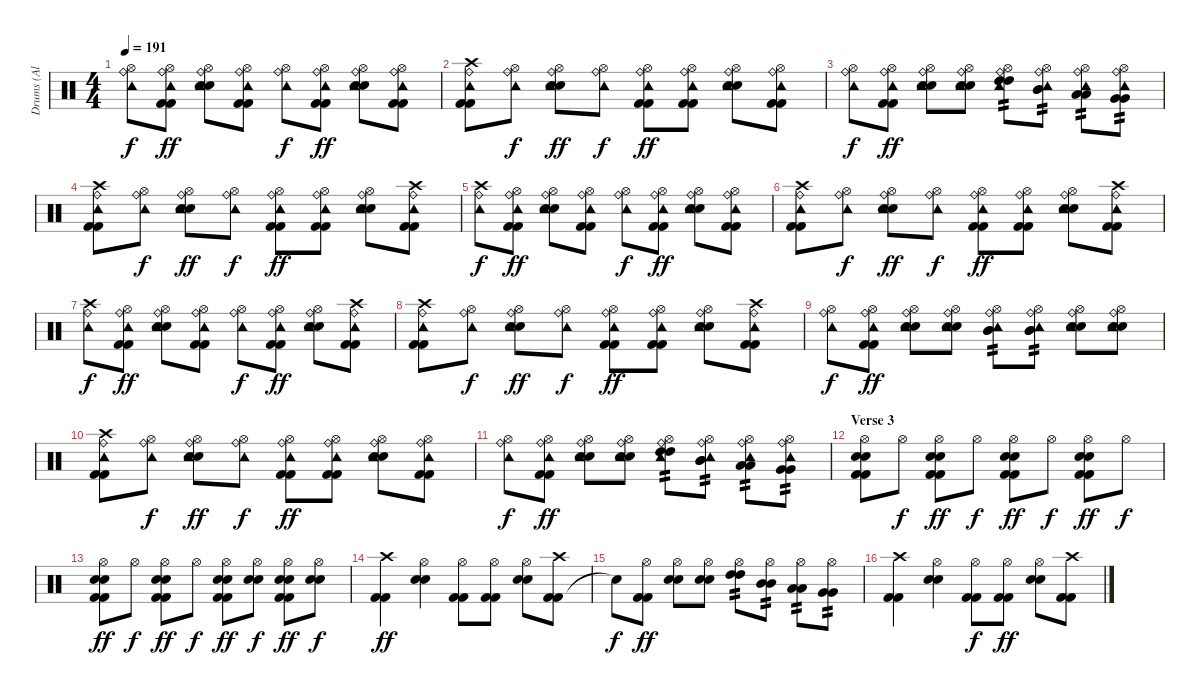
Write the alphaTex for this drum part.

\track ("Drums (Al Sobrante)" "Drums (Al ") {instrument percussion}
\staff {score}
\articulation defaults
\ts (4 4)
\tempo 191
\clef neutral
\ks c
("Ride (bell)" "Tambourine (hit)" "Hi-Hat (open)").8{dy f} ("Kick (hit) 2" "Kick (hit) 2" "Ride (bell)" "Tambourine (hit)" "Hi-Hat (open)").8{dy ff} ("Electric Snare (hit)" "Electric Snare (hit)" "Ride (bell)" "Tambourine (hit)" "Hi-Hat (open)").8 ("Kick (hit) 2" "Kick (hit) 2" "Ride (bell)" "Tambourine (hit)" "Hi-Hat (open)").8 ("Ride (bell)" "Tambourine (hit)" "Hi-Hat (open)").8{dy f} ("Kick (hit) 2" "Kick (hit) 2" "Ride (bell)" "Tambourine (hit)" "Hi-Hat (open)").8{dy ff} ("Electric Snare (hit)" "Electric Snare (hit)" "Ride (bell)" "Tambourine (hit)" "Hi-Hat (open)").8 ("Kick (hit) 2" "Kick (hit) 2" "Ride (bell)" "Tambourine (hit)" "Hi-Hat (open)").8 |
("Kick (hit) 2" "Kick (hit) 2" "Ride (bell)" "Tambourine (hit)" "Crash high (hit)").8 ("Ride (bell)" "Tambourine (hit)" "Hi-Hat (open)").8{dy f} ("Electric Snare (hit)" "Electric Snare (hit)" "Ride (bell)" "Tambourine (hit)" "Hi-Hat (open)").8{dy ff} ("Ride (bell)" "Tambourine (hit)" "Hi-Hat (open)").8{dy f} ("Kick (hit) 2" "Kick (hit) 2" "Ride (bell)" "Tambourine (hit)" "Hi-Hat (open)").8{dy ff} ("Kick (hit) 2" "Kick (hit) 2" "Ride (bell)" "Tambourine (hit)" "Hi-Hat (open)").8 ("Electric Snare (hit)" "Electric Snare (hit)" "Ride (bell)" "Tambourine (hit)" "Hi-Hat (open)").8 ("Kick (hit) 2" "Kick (hit) 2" "Ride (bell)" "Tambourine (hit)" "Hi-Hat (open)").8 |
("Ride (bell)" "Tambourine (hit)" "Hi-Hat (open)").8{dy f} ("Kick (hit) 2" "Kick (hit) 2" "Ride (bell)" "Tambourine (hit)" "Hi-Hat (open)").8{dy ff} ("Electric Snare (hit)" "Electric Snare (hit)" "Ride (bell)" "Tambourine (hit)" "Hi-Hat (open)").8 ("Electric Snare (hit)" "Electric Snare (hit)" "Ride (bell)" "Tambourine (hit)" "Hi-Hat (open)").8 ("High Tom (hit)" "High Tom (hit)" "Ride (bell)" "Tambourine (hit)" "Hi-Hat (open)").8{tp 2} ("Mid Tom (hit)" "Mid Tom (hit)" "Ride (bell)" "Tambourine (hit)" "Hi-Hat (open)").8{tp 2} ("Low Tom (hit)" "Low Tom (hit)" "Ride (bell)" "Tambourine (hit)" "Hi-Hat (open)").8{tp 2} ("Very Low Tom (hit)" "Very Low Tom (hit)" "Ride (bell)" "Tambourine (hit)" "Hi-Hat (open)").8{tp 2} |
("Kick (hit) 2" "Kick (hit) 2" "Ride (bell)" "Tambourine (hit)" "Crash high (hit)").8 ("Ride (bell)" "Tambourine (hit)" "Hi-Hat (open)").8{dy f} ("Electric Snare (hit)" "Electric Snare (hit)" "Ride (bell)" "Tambourine (hit)" "Hi-Hat (open)").8{dy ff} ("Ride (bell)" "Tambourine (hit)" "Hi-Hat (open)").8{dy f} ("Kick (hit) 2" "Kick (hit) 2" "Ride (bell)" "Tambourine (hit)" "Hi-Hat (open)").8{dy ff} ("Kick (hit) 2" "Kick (hit) 2" "Ride (bell)" "Tambourine (hit)" "Hi-Hat (open)").8 ("Electric Snare (hit)" "Electric Snare (hit)" "Ride (bell)" "Tambourine (hit)" "Hi-Hat (open)").8 ("Kick (hit) 2" "Kick (hit) 2" "Ride (bell)" "Tambourine (hit)" "Crash high (hit)").8 |
("Ride (bell)" "Tambourine (hit)" "Crash high (hit)").8{dy f} ("Kick (hit) 2" "Kick (hit) 2" "Ride (bell)" "Tambourine (hit)" "Hi-Hat (open)").8{dy ff} ("Electric Snare (hit)" "Electric Snare (hit)" "Ride (bell)" "Tambourine (hit)" "Hi-Hat (open)").8 ("Kick (hit) 2" "Kick (hit) 2" "Ride (bell)" "Tambourine (hit)" "Hi-Hat (open)").8 ("Ride (bell)" "Tambourine (hit)" "Hi-Hat (open)").8{dy f} ("Kick (hit) 2" "Kick (hit) 2" "Ride (bell)" "Tambourine (hit)" "Hi-Hat (open)").8{dy ff} ("Electric Snare (hit)" "Electric Snare (hit)" "Ride (bell)" "Tambourine (hit)" "Hi-Hat (open)").8 ("Kick (hit) 2" "Kick (hit) 2" "Ride (bell)" "Tambourine (hit)" "Hi-Hat (open)").8 |
("Kick (hit) 2" "Kick (hit) 2" "Ride (bell)" "Tambourine (hit)" "Crash high (hit)").8 ("Ride (bell)" "Tambourine (hit)" "Hi-Hat (open)").8{dy f} ("Electric Snare (hit)" "Electric Snare (hit)" "Ride (bell)" "Tambourine (hit)" "Hi-Hat (open)").8{dy ff} ("Ride (bell)" "Tambourine (hit)" "Hi-Hat (open)").8{dy f} ("Kick (hit) 2" "Kick (hit) 2" "Ride (bell)" "Tambourine (hit)" "Hi-Hat (open)").8{dy ff} ("Kick (hit) 2" "Kick (hit) 2" "Ride (bell)" "Tambourine (hit)" "Hi-Hat (open)").8 ("Electric Snare (hit)" "Electric Snare (hit)" "Ride (bell)" "Tambourine (hit)" "Hi-Hat (open)").8 ("Kick (hit) 2" "Kick (hit) 2" "Ride (bell)" "Tambourine (hit)" "Crash high (hit)").8 |
("Ride (bell)" "Tambourine (hit)" "Crash high (hit)").8{dy f} ("Kick (hit) 2" "Kick (hit) 2" "Ride (bell)" "Tambourine (hit)" "Hi-Hat (open)").8{dy ff} ("Electric Snare (hit)" "Electric Snare (hit)" "Ride (bell)" "Tambourine (hit)" "Hi-Hat (open)").8 ("Kick (hit) 2" "Kick (hit) 2" "Ride (bell)" "Tambourine (hit)" "Hi-Hat (open)").8 ("Ride (bell)" "Tambourine (hit)" "Hi-Hat (open)").8{dy f} ("Kick (hit) 2" "Kick (hit) 2" "Ride (bell)" "Tambourine (hit)" "Hi-Hat (open)").8{dy ff} ("Electric Snare (hit)" "Electric Snare (hit)" "Ride (bell)" "Tambourine (hit)" "Hi-Hat (open)").8 ("Kick (hit) 2" "Kick (hit) 2" "Ride (bell)" "Tambourine (hit)" "Crash high (hit)").8 |
("Kick (hit) 2" "Kick (hit) 2" "Ride (bell)" "Tambourine (hit)" "Crash high (hit)").8 ("Ride (bell)" "Tambourine (hit)" "Hi-Hat (open)").8{dy f} ("Electric Snare (hit)" "Electric Snare (hit)" "Ride (bell)" "Tambourine (hit)" "Hi-Hat (open)").8{dy ff} ("Ride (bell)" "Tambourine (hit)" "Hi-Hat (open)").8{dy f} ("Kick (hit) 2" "Kick (hit) 2" "Ride (bell)" "Tambourine (hit)" "Hi-Hat (open)").8{dy ff} ("Kick (hit) 2" "Kick (hit) 2" "Ride (bell)" "Tambourine (hit)" "Hi-Hat (open)").8 ("Electric Snare (hit)" "Electric Snare (hit)" "Ride (bell)" "Tambourine (hit)" "Hi-Hat (open)").8 ("Kick (hit) 2" "Kick (hit) 2" "Ride (bell)" "Tambourine (hit)" "Crash high (hit)").8 |
("Ride (bell)" "Tambourine (hit)" "Hi-Hat (open)").8{dy f} ("Kick (hit) 2" "Kick (hit) 2" "Ride (bell)" "Tambourine (hit)" "Hi-Hat (open)").8{dy ff} ("Electric Snare (hit)" "Electric Snare (hit)" "Ride (bell)" "Tambourine (hit)" "Hi-Hat (open)").8 ("Electric Snare (hit)" "Electric Snare (hit)" "Ride (bell)" "Tambourine (hit)" "Hi-Hat (open)").8 ("Mid Tom (hit)" "Mid Tom (hit)" "Ride (bell)" "Tambourine (hit)" "Hi-Hat (open)").8{tp 2} ("Mid Tom (hit)" "Mid Tom (hit)" "Ride (bell)" "Tambourine (hit)" "Hi-Hat (open)").8{tp 2} ("Electric Snare (hit)" "Electric Snare (hit)" "Ride (bell)" "Tambourine (hit)" "Hi-Hat (open)").8 ("Electric Snare (hit)" "Electric Snare (hit)" "Ride (bell)" "Tambourine (hit)" "Hi-Hat (open)").8 |
("Kick (hit) 2" "Kick (hit) 2" "Ride (bell)" "Tambourine (hit)" "Crash high (hit)").8 ("Ride (bell)" "Tambourine (hit)" "Hi-Hat (open)").8{dy f} ("Electric Snare (hit)" "Electric Snare (hit)" "Ride (bell)" "Tambourine (hit)" "Hi-Hat (open)").8{dy ff} ("Ride (bell)" "Tambourine (hit)" "Hi-Hat (open)").8{dy f} ("Kick (hit) 2" "Kick (hit) 2" "Ride (bell)" "Tambourine (hit)" "Hi-Hat (open)").8{dy ff} ("Kick (hit) 2" "Kick (hit) 2" "Ride (bell)" "Tambourine (hit)" "Hi-Hat (open)").8 ("Electric Snare (hit)" "Electric Snare (hit)" "Ride (bell)" "Tambourine (hit)" "Hi-Hat (open)").8 ("Kick (hit) 2" "Kick (hit) 2" "Ride (bell)" "Tambourine (hit)" "Hi-Hat (open)").8 |
("Ride (bell)" "Tambourine (hit)" "Hi-Hat (open)").8{dy f} ("Kick (hit) 2" "Kick (hit) 2" "Ride (bell)" "Tambourine (hit)" "Hi-Hat (open)").8{dy ff} ("Electric Snare (hit)" "Electric Snare (hit)" "Ride (bell)" "Tambourine (hit)" "Hi-Hat (open)").8 ("Electric Snare (hit)" "Electric Snare (hit)" "Ride (bell)" "Tambourine (hit)" "Hi-Hat (open)").8 ("High Tom (hit)" "High Tom (hit)" "Ride (bell)" "Tambourine (hit)" "Hi-Hat (open)").8{tp 2} ("Mid Tom (hit)" "Mid Tom (hit)" "Ride (bell)" "Tambourine (hit)" "Hi-Hat (open)").8{tp 2} ("Low Tom (hit)" "Low Tom (hit)" "Ride (bell)" "Tambourine (hit)" "Hi-Hat (open)").8{tp 2} ("Very Low Tom (hit)" "Very Low Tom (hit)" "Ride (bell)" "Tambourine (hit)" "Hi-Hat (open)").8{tp 2} |
\section ("" "Verse 3")
("Kick (hit) 2" "Kick (hit) 2" "Electric Snare (hit)" "Electric Snare (hit)" "Hi-Hat (open)").8 "Hi-Hat (open)".8{dy f} ("Kick (hit) 2" "Kick (hit) 2" "Electric Snare (hit)" "Electric Snare (hit)" "Hi-Hat (open)").8{dy ff} "Hi-Hat (open)".8{dy f} ("Kick (hit) 2" "Kick (hit) 2" "Electric Snare (hit)" "Electric Snare (hit)" "Hi-Hat (open)").8{dy ff} "Hi-Hat (open)".8{dy f} ("Kick (hit) 2" "Kick (hit) 2" "Electric Snare (hit)" "Electric Snare (hit)" "Hi-Hat (open)").8{dy ff} "Hi-Hat (open)".8{dy f} |
("Kick (hit) 2" "Kick (hit) 2" "Electric Snare (hit)" "Electric Snare (hit)" "Hi-Hat (open)").8{dy ff} "Hi-Hat (open)".8{dy f} ("Kick (hit) 2" "Kick (hit) 2" "Electric Snare (hit)" "Electric Snare (hit)" "Hi-Hat (open)").8{dy ff} "Hi-Hat (open)".8{dy f} ("Kick (hit) 2" "Kick (hit) 2" "Electric Snare (hit)" "Electric Snare (hit)" "Hi-Hat (open)").8{dy ff} ("Electric Snare (hit)" "Electric Snare (hit)" "Hi-Hat (open)").8{dy f} ("Kick (hit) 2" "Kick (hit) 2" "Electric Snare (hit)" "Electric Snare (hit)" "Hi-Hat (open)").8{dy ff} ("Electric Snare (hit)" "Electric Snare (hit)" "Hi-Hat (open)").8{dy f} |
("Kick (hit) 2" "Kick (hit) 2" "Crash high (hit)").4{dy ff} ("Electric Snare (hit)" "Electric Snare (hit)" "Hi-Hat (open)").4 ("Kick (hit) 2" "Kick (hit) 2" "Hi-Hat (open)").8 ("Kick (hit) 2" "Kick (hit) 2" "Hi-Hat (open)").8 ("Electric Snare (hit)" "Electric Snare (hit)" "Hi-Hat (open)").8 ("Kick (hit) 2" "Kick (hit) 2" "Crash high (hit)").8 |
"Snare (hit)"{t}.8{dy f} ("Kick (hit) 2" "Kick (hit) 2" "Hi-Hat (open)").8{dy ff} ("Electric Snare (hit)" "Electric Snare (hit)" "Hi-Hat (open)").8 ("Electric Snare (hit)" "Electric Snare (hit)" "Hi-Hat (open)").8 ("High Tom (hit)" "High Tom (hit)" "Hi-Hat (open)").8{tp 2} ("Mid Tom (hit)" "Mid Tom (hit)" "Hi-Hat (open)").8{tp 2} ("Low Tom (hit)" "Low Tom (hit)" "Hi-Hat (open)").8{tp 2} ("Very Low Tom (hit)" "Very Low Tom (hit)" "Hi-Hat (open)").8{tp 2} |
("Kick (hit) 2" "Kick (hit) 2" "Crash high (hit)").4 ("Electric Snare (hit)" "Electric Snare (hit)" "Hi-Hat (open)").4 ("Kick (hit) 2" "Kick (hit) 2" "Hi-Hat (open)").8{dy f} ("Kick (hit) 2" "Kick (hit) 2" "Hi-Hat (open)").8{dy ff} ("Electric Snare (hit)" "Electric Snare (hit)" "Hi-Hat (open)").8 ("Kick (hit) 2" "Kick (hit) 2" "Crash high (hit)").8
